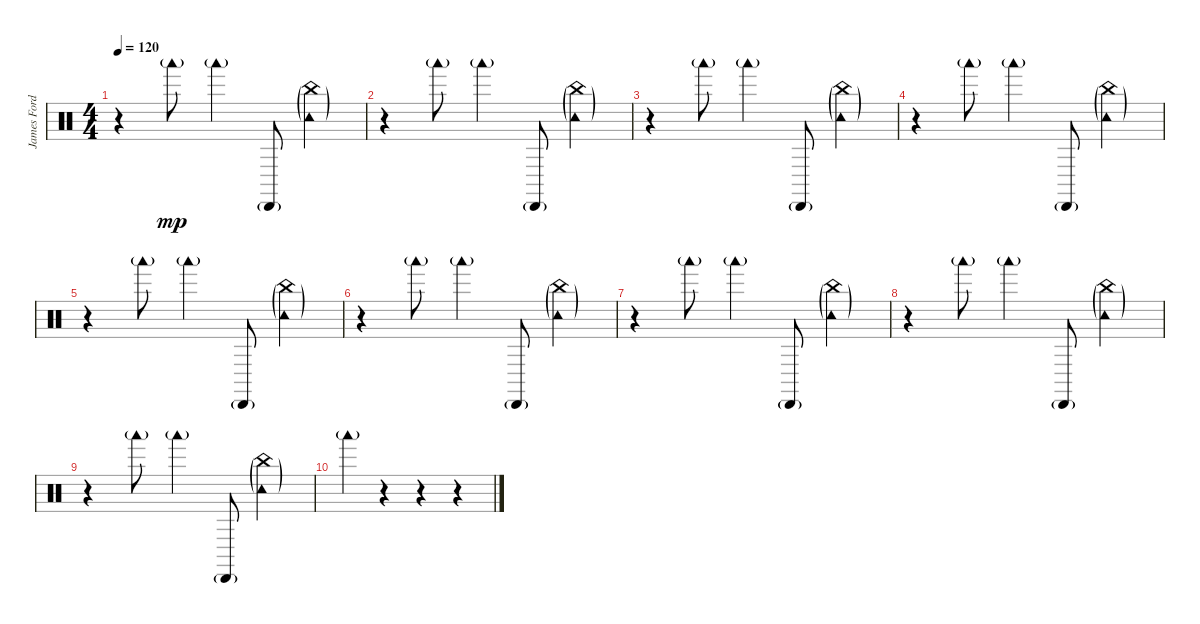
\track ("James Ford (Percussion)" "James Ford") {instrument percussion}
\staff {score}
\articulation defaults
\ts (4 4)
\tempo 120
\clef neutral
\ks c
r.4{dy mp} "Woodblock low (hit)"{g}.8 "Woodblock low (hit)"{g}.4 "Cabasa (hit)"{g}.8 ("China (hit)"{g} "Tambourine (hit)"{g}).4 |
r.4 "Woodblock low (hit)"{g}.8 "Woodblock low (hit)"{g}.4 "Cabasa (hit)"{g}.8 ("China (hit)"{g} "Tambourine (hit)"{g}).4 |
r.4 "Woodblock low (hit)"{g}.8 "Woodblock low (hit)"{g}.4 "Cabasa (hit)"{g}.8 ("China (hit)"{g} "Tambourine (hit)"{g}).4 |
r.4 "Woodblock low (hit)"{g}.8 "Woodblock low (hit)"{g}.4 "Cabasa (hit)"{g}.8 ("China (hit)"{g} "Tambourine (hit)"{g}).4 |
r.4 "Woodblock low (hit)"{g}.8 "Woodblock low (hit)"{g}.4 "Cabasa (hit)"{g}.8 ("China (hit)"{g} "Tambourine (hit)"{g}).4 |
r.4 "Woodblock low (hit)"{g}.8 "Woodblock low (hit)"{g}.4 "Cabasa (hit)"{g}.8 ("China (hit)"{g} "Tambourine (hit)"{g}).4 |
r.4 "Woodblock low (hit)"{g}.8 "Woodblock low (hit)"{g}.4 "Cabasa (hit)"{g}.8 ("China (hit)"{g} "Tambourine (hit)"{g}).4 |
r.4 "Woodblock low (hit)"{g}.8 "Woodblock low (hit)"{g}.4 "Cabasa (hit)"{g}.8 ("China (hit)"{g} "Tambourine (hit)"{g}).4 |
r.4 "Woodblock low (hit)"{g}.8 "Woodblock low (hit)"{g}.4 "Cabasa (hit)"{g}.8 ("China (hit)"{g} "Tambourine (hit)"{g}).4 |
"Woodblock low (hit)"{g}.4 r.4 r.4 r.4
